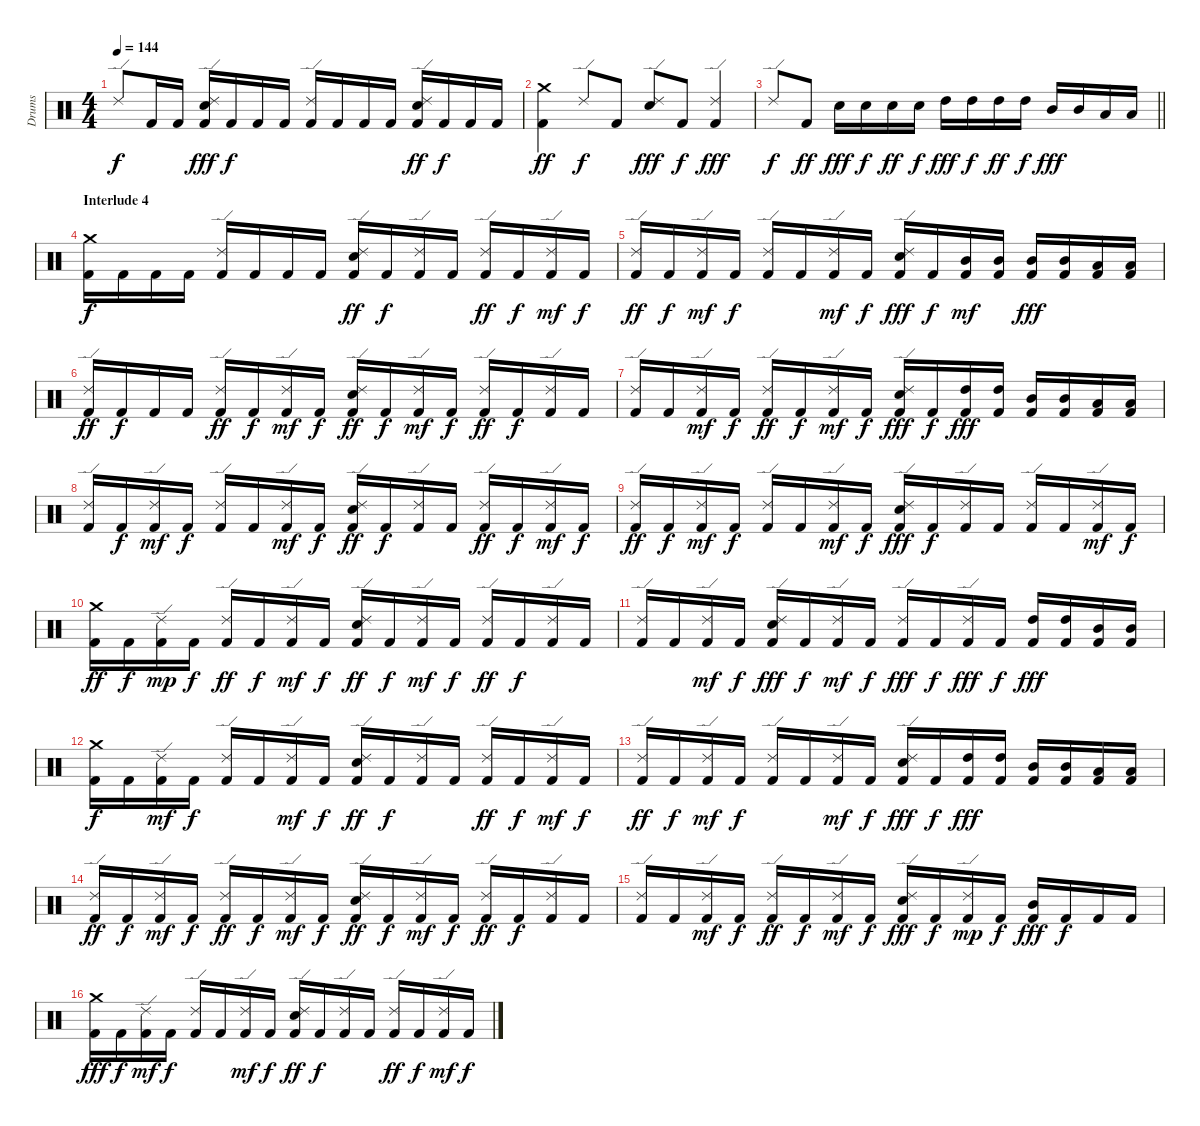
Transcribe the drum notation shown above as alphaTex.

\track ("Drums" "Drums") {instrument percussion}
\staff {score}
\articulation defaults
\ts (4 4)
\tempo 144
\clef neutral
\ks c "Ride (edge) 2".8{dy f} "Kick (hit) 2".16 "Kick (hit) 2".16
("Ride (edge) 2" "Electric Snare (hit)" "Kick (hit) 2").16{dy fff} "Kick (hit) 2".16{dy f} "Kick (hit) 2".16 "Kick (hit) 2".16 ("Ride (edge) 2" "Kick (hit) 2").16 "Kick (hit) 2".16 "Kick (hit) 2".16 "Kick (hit) 2".16 ("Ride (edge) 2" "Electric Snare (hit)" "Kick (hit) 2").16{dy ff} "Kick (hit) 2".16{dy f} "Kick (hit) 2".16 "Kick (hit) 2".16 |
("Crash medium (hit)" "Kick (hit) 2").4{dy ff} "Ride (edge) 2".8{dy f} "Kick (hit) 2".8 ("Ride (edge) 2" "Electric Snare (hit)").8{dy fff} "Kick (hit) 2".8{dy f} ("Ride (edge) 2" "Kick (hit) 2").4{dy fff} |
\barLineRight lightlight "Ride (edge) 2".8{dy f} "Kick (hit) 2".8{dy ff} "Electric Snare (hit)".16{dy fff} "Electric Snare (hit)".16{dy f} "Electric Snare (hit)".16{dy ff} "Electric Snare (hit)".16{dy f} "High Tom (hit)".16{dy fff} "High Tom (hit)".16{dy f} "High Tom (hit)".16{dy ff} "High Tom (hit)".16{dy f} "Mid Tom (hit)".16{dy fff} "Mid Tom (hit)".16 "Low Tom (hit)".16 "Low Tom (hit)".16
|
\section ("" "Interlude 4")
("Crash medium (hit)" "Kick (hit) 2").16{dy f} "Kick (hit) 2".16 "Kick (hit) 2".16 "Kick (hit) 2".16 ("Ride (edge) 2" "Kick (hit) 2").16 "Kick (hit) 2".16 "Kick (hit) 2".16 "Kick (hit) 2".16 ("Ride (edge) 2" "Electric Snare (hit)" "Kick (hit) 2").16{dy ff} "Kick (hit) 2".16{dy f} ("Ride (edge) 2" "Kick (hit) 2").16 "Kick (hit) 2".16 ("Ride (edge) 2" "Kick (hit) 2").16{dy ff} "Kick (hit) 2".16{dy f} ("Ride (edge) 2" "Kick (hit) 2").16{dy mf} "Kick (hit) 2".16{dy f} |
("Ride (edge) 2" "Kick (hit) 2").16{dy ff} "Kick (hit) 2".16{dy f} ("Ride (edge) 2" "Kick (hit) 2").16{dy mf} "Kick (hit) 2".16{dy f} ("Ride (edge) 2" "Kick (hit) 2").16 "Kick (hit) 2".16 ("Ride (edge) 2" "Kick (hit) 2").16{dy mf} "Kick (hit) 2".16{dy f} ("Ride (edge) 2" "Electric Snare (hit)" "Kick (hit) 2").16{dy fff} "Kick (hit) 2".16{dy f} ("Mid Tom (hit)" "Kick (hit) 2").16{dy mf} ("Mid Tom (hit)" "Kick (hit) 2").16 ("Mid Tom (hit)" "Kick (hit) 2").16{dy fff} ("Mid Tom (hit)" "Kick (hit) 2").16 ("Low Tom (hit)" "Kick (hit) 2").16 ("Low Tom (hit)" "Kick (hit) 2").16 |
("Ride (edge) 2" "Kick (hit) 2").16{dy ff} "Kick (hit) 2".16{dy f} "Kick (hit) 2".16 "Kick (hit) 2".16 ("Ride (edge) 2" "Kick (hit) 2").16{dy ff} "Kick (hit) 2".16{dy f} ("Ride (edge) 2" "Kick (hit) 2").16{dy mf} "Kick (hit) 2".16{dy f} ("Ride (edge) 2" "Electric Snare (hit)" "Kick (hit) 2").16{dy ff} "Kick (hit) 2".16{dy f} ("Ride (edge) 2" "Kick (hit) 2").16{dy mf} "Kick (hit) 2".16{dy f} ("Ride (edge) 2" "Kick (hit) 2").16{dy ff} "Kick (hit) 2".16{dy f} ("Ride (edge) 2" "Kick (hit) 2").16 "Kick (hit) 2".16 |
("Ride (edge) 2" "Kick (hit) 2").16 "Kick (hit) 2".16 ("Ride (edge) 2" "Kick (hit) 2").16{dy mf} "Kick (hit) 2".16{dy f} ("Ride (edge) 2" "Kick (hit) 2").16{dy ff} "Kick (hit) 2".16{dy f} ("Ride (edge) 2" "Kick (hit) 2").16{dy mf} "Kick (hit) 2".16{dy f} ("Ride (edge) 2" "Electric Snare (hit)" "Kick (hit) 2").16{dy fff} "Kick (hit) 2".16{dy f} ("High Tom (hit)" "Kick (hit) 2").16{dy fff} ("High Tom (hit)" "Kick (hit) 2").16 ("Mid Tom (hit)" "Kick (hit) 2").16 ("Mid Tom (hit)" "Kick (hit) 2").16 ("Low Tom (hit)" "Kick (hit) 2").16 ("Low Tom (hit)" "Kick (hit) 2").16 |
("Ride (edge) 2" "Kick (hit) 2").16 "Kick (hit) 2".16{dy f} ("Ride (edge) 2" "Kick (hit) 2").16{dy mf} "Kick (hit) 2".16{dy f} ("Ride (edge) 2" "Kick (hit) 2").16 "Kick (hit) 2".16 ("Ride (edge) 2" "Kick (hit) 2").16{dy mf} "Kick (hit) 2".16{dy f} ("Ride (edge) 2" "Electric Snare (hit)" "Kick (hit) 2").16{dy ff} "Kick (hit) 2".16{dy f} ("Ride (edge) 2" "Kick (hit) 2").16 "Kick (hit) 2".16 ("Ride (edge) 2" "Kick (hit) 2").16{dy ff} "Kick (hit) 2".16{dy f} ("Ride (edge) 2" "Kick (hit) 2").16{dy mf} "Kick (hit) 2".16{dy f} |
("Ride (edge) 2" "Kick (hit) 2").16{dy ff} "Kick (hit) 2".16{dy f} ("Ride (edge) 2" "Kick (hit) 2").16{dy mf} "Kick (hit) 2".16{dy f} ("Ride (edge) 2" "Kick (hit) 2").16 "Kick (hit) 2".16 ("Ride (edge) 2" "Kick (hit) 2").16{dy mf} "Kick (hit) 2".16{dy f} ("Ride (edge) 2" "Electric Snare (hit)" "Kick (hit) 2").16{dy fff} "Kick (hit) 2".16{dy f} ("Ride (edge) 2" "Kick (hit) 2").16 "Kick (hit) 2".16 ("Ride (edge) 2" "Kick (hit) 2").16 "Kick (hit) 2".16 ("Ride (edge) 2" "Kick (hit) 2").16{dy mf} "Kick (hit) 2".16{dy f} |
("Crash medium (hit)" "Kick (hit) 2").16{dy ff} "Kick (hit) 2".16{dy f} ("Ride (edge) 2" "Kick (hit) 2").16{dy mp} "Kick (hit) 2".16{dy f} ("Ride (edge) 2" "Kick (hit) 2").16{dy ff} "Kick (hit) 2".16{dy f} ("Ride (edge) 2" "Kick (hit) 2").16{dy mf} "Kick (hit) 2".16{dy f} ("Ride (edge) 2" "Electric Snare (hit)" "Kick (hit) 2").16{dy ff} "Kick (hit) 2".16{dy f} ("Ride (edge) 2" "Kick (hit) 2").16{dy mf} "Kick (hit) 2".16{dy f} ("Ride (edge) 2" "Kick (hit) 2").16{dy ff} "Kick (hit) 2".16{dy f} ("Ride (edge) 2" "Kick (hit) 2").16 "Kick (hit) 2".16 |
("Ride (edge) 2" "Kick (hit) 2").16 "Kick (hit) 2".16 ("Ride (edge) 2" "Kick (hit) 2").16{dy mf} "Kick (hit) 2".16{dy f} ("Ride (edge) 2" "Electric Snare (hit)" "Kick (hit) 2").16{dy fff} "Kick (hit) 2".16{dy f} ("Ride (edge) 2" "Kick (hit) 2").16{dy mf} "Kick (hit) 2".16{dy f} ("Ride (edge) 2" "Kick (hit) 2").16{dy fff} "Kick (hit) 2".16{dy f} ("Ride (edge) 2" "Kick (hit) 2").16{dy fff} "Kick (hit) 2".16{dy f} ("High Tom (hit)" "Kick (hit) 2").16{dy fff} ("High Tom (hit)" "Kick (hit) 2").16 ("Mid Tom (hit)" "Kick (hit) 2").16 ("Mid Tom (hit)" "Kick (hit) 2").16 |
("Crash medium (hit)" "Kick (hit) 2").16{dy f} "Kick (hit) 2".16 ("Ride (edge) 2" "Kick (hit) 2").16{dy mf} "Kick (hit) 2".16{dy f} ("Ride (edge) 2" "Kick (hit) 2").16 "Kick (hit) 2".16 ("Ride (edge) 2" "Kick (hit) 2").16{dy mf} "Kick (hit) 2".16{dy f} ("Ride (edge) 2" "Electric Snare (hit)" "Kick (hit) 2").16{dy ff} "Kick (hit) 2".16{dy f} ("Ride (edge) 2" "Kick (hit) 2").16 "Kick (hit) 2".16 ("Ride (edge) 2" "Kick (hit) 2").16{dy ff} "Kick (hit) 2".16{dy f} ("Ride (edge) 2" "Kick (hit) 2").16{dy mf} "Kick (hit) 2".16{dy f} |
("Ride (edge) 2" "Kick (hit) 2").16{dy ff} "Kick (hit) 2".16{dy f} ("Ride (edge) 2" "Kick (hit) 2").16{dy mf} "Kick (hit) 2".16{dy f} ("Ride (edge) 2" "Kick (hit) 2").16 "Kick (hit) 2".16 ("Ride (edge) 2" "Kick (hit) 2").16{dy mf} "Kick (hit) 2".16{dy f} ("Ride (edge) 2" "Electric Snare (hit)" "Kick (hit) 2").16{dy fff} "Kick (hit) 2".16{dy f} ("High Tom (hit)" "Kick (hit) 2").16{dy fff} ("High Tom (hit)" "Kick (hit) 2").16 ("Mid Tom (hit)" "Kick (hit) 2").16 ("Mid Tom (hit)" "Kick (hit) 2").16 ("Low Tom (hit)" "Kick (hit) 2").16 ("Low Tom (hit)" "Kick (hit) 2").16 |
("Ride (edge) 2" "Kick (hit) 2").16{dy ff} "Kick (hit) 2".16{dy f} ("Ride (edge) 2" "Kick (hit) 2").16{dy mf} "Kick (hit) 2".16{dy f} ("Ride (edge) 2" "Kick (hit) 2").16{dy ff} "Kick (hit) 2".16{dy f} ("Ride (edge) 2" "Kick (hit) 2").16{dy mf} "Kick (hit) 2".16{dy f} ("Ride (edge) 2" "Electric Snare (hit)" "Kick (hit) 2").16{dy ff} "Kick (hit) 2".16{dy f} ("Ride (edge) 2" "Kick (hit) 2").16{dy mf} "Kick (hit) 2".16{dy f} ("Ride (edge) 2" "Kick (hit) 2").16{dy ff} "Kick (hit) 2".16{dy f} ("Ride (edge) 2" "Kick (hit) 2").16 "Kick (hit) 2".16 |
("Ride (edge) 2" "Kick (hit) 2").16 "Kick (hit) 2".16 ("Ride (edge) 2" "Kick (hit) 2").16{dy mf} "Kick (hit) 2".16{dy f} ("Ride (edge) 2" "Kick (hit) 2").16{dy ff} "Kick (hit) 2".16{dy f} ("Ride (edge) 2" "Kick (hit) 2").16{dy mf} "Kick (hit) 2".16{dy f} ("Ride (edge) 2" "Electric Snare (hit)" "Kick (hit) 2").16{dy fff} "Kick (hit) 2".16{dy f} ("Ride (edge) 2" "Kick (hit) 2").16{dy mp} "Kick (hit) 2".16{dy f} ("Mid Tom (hit)" "Kick (hit) 2").16{dy fff} "Kick (hit) 2".16{dy f} "Kick (hit) 2".16 "Kick (hit) 2".16 |
("Crash medium (hit)" "Kick (hit) 2").16{dy fff} "Kick (hit) 2".16{dy f} ("Ride (edge) 2" "Kick (hit) 2").16{dy mf} "Kick (hit) 2".16{dy f} ("Ride (edge) 2" "Kick (hit) 2").16 "Kick (hit) 2".16 ("Ride (edge) 2" "Kick (hit) 2").16{dy mf} "Kick (hit) 2".16{dy f} ("Ride (edge) 2" "Electric Snare (hit)" "Kick (hit) 2").16{dy ff} "Kick (hit) 2".16{dy f} ("Ride (edge) 2" "Kick (hit) 2").16 "Kick (hit) 2".16 ("Ride (edge) 2" "Kick (hit) 2").16{dy ff} "Kick (hit) 2".16{dy f} ("Ride (edge) 2" "Kick (hit) 2").16{dy mf} "Kick (hit) 2".16{dy f}
